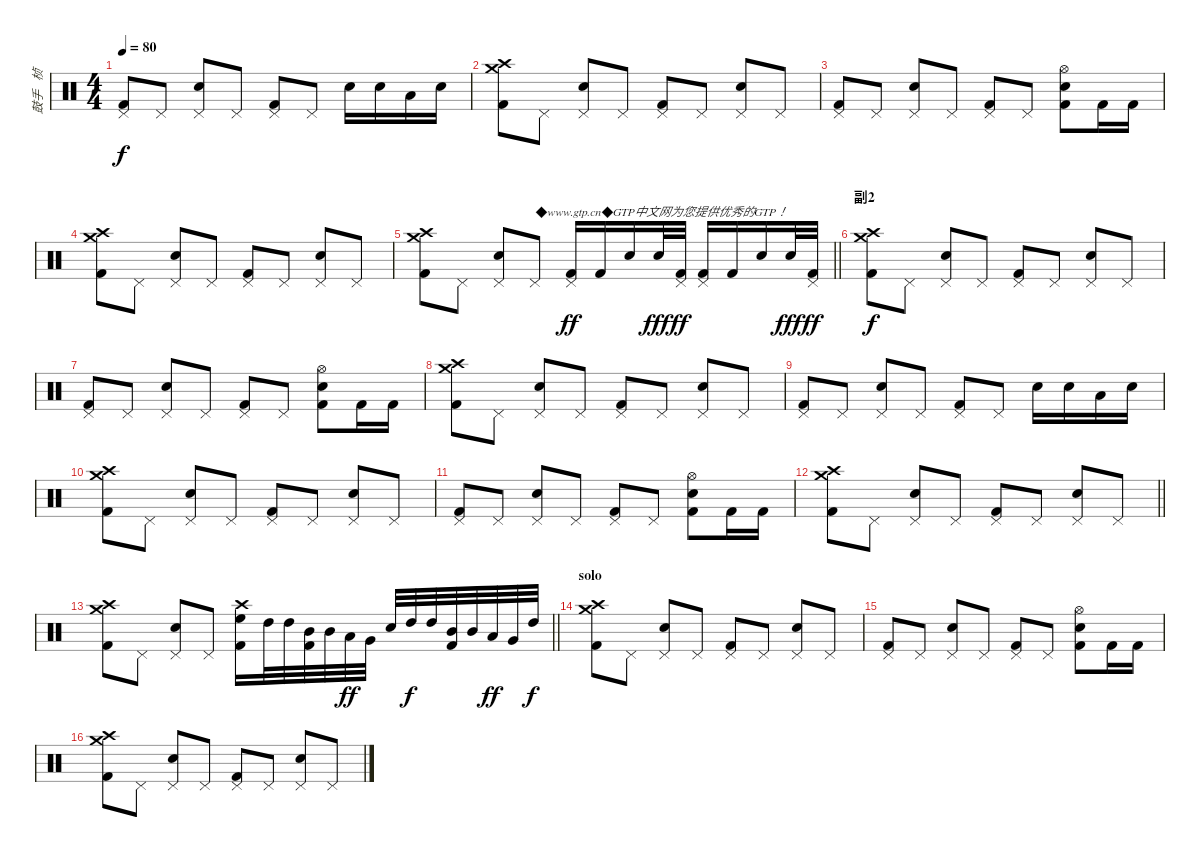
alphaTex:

\track ("鼓手   桢" "鼓手   桢") {instrument percussion}
\staff {score}
\articulation defaults
\ts (4 4)
\tempo 80
\clef neutral
\ks c
("Pedal Hi-Hat (hit)" "Kick (hit) 2").8{dy f} "Pedal Hi-Hat (hit)".8 ("Pedal Hi-Hat (hit)" "Snare (hit) 2").8 "Pedal Hi-Hat (hit)".8 ("Pedal Hi-Hat (hit)" "Kick (hit) 2").8 "Pedal Hi-Hat (hit)".8 "Snare (hit) 2".16 "Snare (hit) 2".16 "Low Tom (hit)".16 "Snare (hit) 2".16 |
("Crash high (hit)" "Crash medium (hit)" "Kick (hit) 2").8 "Pedal Hi-Hat (hit)".8 ("Pedal Hi-Hat (hit)" "Snare (hit) 2").8 "Pedal Hi-Hat (hit)".8 ("Pedal Hi-Hat (hit)" "Kick (hit) 2").8 "Pedal Hi-Hat (hit)".8 ("Pedal Hi-Hat (hit)" "Snare (hit) 2").8 "Pedal Hi-Hat (hit)".8 |
("Pedal Hi-Hat (hit)" "Kick (hit) 2").8 "Pedal Hi-Hat (hit)".8 ("Pedal Hi-Hat (hit)" "Snare (hit) 2").8 "Pedal Hi-Hat (hit)".8 ("Pedal Hi-Hat (hit)" "Kick (hit) 2").8 "Pedal Hi-Hat (hit)".8 ("Hi-Hat (open)" "Snare (hit) 2" "Kick (hit) 2").8 "Kick (hit) 2".16 "Kick (hit) 2".16 |
("Crash high (hit)" "Crash medium (hit)" "Kick (hit) 2").8 "Pedal Hi-Hat (hit)".8 ("Pedal Hi-Hat (hit)" "Snare (hit) 2").8 "Pedal Hi-Hat (hit)".8 ("Pedal Hi-Hat (hit)" "Kick (hit) 2").8 "Pedal Hi-Hat (hit)".8 ("Pedal Hi-Hat (hit)" "Snare (hit) 2").8 "Pedal Hi-Hat (hit)".8 |
\barLineRight lightlight
("Crash high (hit)" "Crash medium (hit)" "Kick (hit) 2").8 "Pedal Hi-Hat (hit)".8 ("Pedal Hi-Hat (hit)" "Snare (hit) 2").8 "Pedal Hi-Hat (hit)".8{txt "◆www.gtp.cn◆GTP中文网为您提供优秀的GTP！"} ("Kick (hit) 2" "Pedal Hi-Hat (hit)").16{dy ff} "Kick (hit) 2".16 "Electric Snare (hit)".16 "Electric Snare (hit)".32{dy fff} ("Kick (hit) 2" "Pedal Hi-Hat (hit)").32{dy ff} ("Kick (hit) 2" "Pedal Hi-Hat (hit)").16 "Kick (hit) 2".16 "Electric Snare (hit)".16 "Electric Snare (hit)".32{dy fff} ("Kick (hit) 2" "Pedal Hi-Hat (hit)").32{dy ff} |
\section ("" "副2")
("Crash high (hit)" "Crash medium (hit)" "Kick (hit) 2").8{dy f} "Pedal Hi-Hat (hit)".8 ("Pedal Hi-Hat (hit)" "Snare (hit) 2").8 "Pedal Hi-Hat (hit)".8 ("Pedal Hi-Hat (hit)" "Kick (hit) 2").8 "Pedal Hi-Hat (hit)".8 ("Pedal Hi-Hat (hit)" "Snare (hit) 2").8 "Pedal Hi-Hat (hit)".8 |
("Pedal Hi-Hat (hit)" "Kick (hit) 2").8 "Pedal Hi-Hat (hit)".8 ("Pedal Hi-Hat (hit)" "Snare (hit) 2").8 "Pedal Hi-Hat (hit)".8 ("Pedal Hi-Hat (hit)" "Kick (hit) 2").8 "Pedal Hi-Hat (hit)".8 ("Hi-Hat (open)" "Snare (hit) 2" "Kick (hit) 2").8 "Kick (hit) 2".16 "Kick (hit) 2".16 |
("Crash high (hit)" "Crash medium (hit)" "Kick (hit) 2").8 "Pedal Hi-Hat (hit)".8 ("Pedal Hi-Hat (hit)" "Snare (hit) 2").8 "Pedal Hi-Hat (hit)".8 ("Pedal Hi-Hat (hit)" "Kick (hit) 2").8 "Pedal Hi-Hat (hit)".8 ("Pedal Hi-Hat (hit)" "Snare (hit) 2").8 "Pedal Hi-Hat (hit)".8 |
("Pedal Hi-Hat (hit)" "Kick (hit) 2").8 "Pedal Hi-Hat (hit)".8 ("Pedal Hi-Hat (hit)" "Snare (hit) 2").8 "Pedal Hi-Hat (hit)".8 ("Pedal Hi-Hat (hit)" "Kick (hit) 2").8 "Pedal Hi-Hat (hit)".8 "Snare (hit) 2".16 "Snare (hit) 2".16 "Low Tom (hit)".16 "Snare (hit) 2".16 |
("Crash high (hit)" "Crash medium (hit)" "Kick (hit) 2").8 "Pedal Hi-Hat (hit)".8 ("Pedal Hi-Hat (hit)" "Snare (hit) 2").8 "Pedal Hi-Hat (hit)".8 ("Pedal Hi-Hat (hit)" "Kick (hit) 2").8 "Pedal Hi-Hat (hit)".8 ("Pedal Hi-Hat (hit)" "Snare (hit) 2").8 "Pedal Hi-Hat (hit)".8 |
("Pedal Hi-Hat (hit)" "Kick (hit) 2").8 "Pedal Hi-Hat (hit)".8 ("Pedal Hi-Hat (hit)" "Snare (hit) 2").8 "Pedal Hi-Hat (hit)".8 ("Pedal Hi-Hat (hit)" "Kick (hit) 2").8 "Pedal Hi-Hat (hit)".8 ("Hi-Hat (open)" "Snare (hit) 2" "Kick (hit) 2").8 "Kick (hit) 2".16 "Kick (hit) 2".16 |
\barLineRight lightlight
("Crash high (hit)" "Crash medium (hit)" "Kick (hit) 2").8 "Pedal Hi-Hat (hit)".8 ("Pedal Hi-Hat (hit)" "Snare (hit) 2").8 "Pedal Hi-Hat (hit)".8 ("Pedal Hi-Hat (hit)" "Kick (hit) 2").8 "Pedal Hi-Hat (hit)".8 ("Pedal Hi-Hat (hit)" "Snare (hit) 2").8 "Pedal Hi-Hat (hit)".8 |
\barLineRight lightlight
("Crash high (hit)" "Crash medium (hit)" "Kick (hit) 2").8 "Pedal Hi-Hat (hit)".8 ("Pedal Hi-Hat (hit)" "Snare (hit) 2").8 "Pedal Hi-Hat (hit)".8 ("Crash high (hit)" "High Floor Tom (hit)" "Kick (hit) 2").16 "High Tom (hit)".32 "High Tom (hit)".32 ("Mid Tom (hit)" "Kick (hit) 2").32 "Mid Tom (hit)".32 "Low Tom (hit)".32{dy ff} "Very Low Tom (hit)".32 "Electric Snare (hit)".32 "High Tom (hit)".32{dy f} "High Tom (hit)".32 ("Mid Tom (hit)" "Kick (hit) 2").32 "Mid Tom (hit)".32 "Low Tom (hit)".32{dy ff} "Very Low Tom (hit)".32 "High Tom (hit)".32{dy f} |
\section ("" "solo")
("Crash high (hit)" "Crash medium (hit)" "Kick (hit) 2").8 "Pedal Hi-Hat (hit)".8 ("Pedal Hi-Hat (hit)" "Snare (hit) 2").8 "Pedal Hi-Hat (hit)".8 ("Pedal Hi-Hat (hit)" "Kick (hit) 2").8 "Pedal Hi-Hat (hit)".8 ("Pedal Hi-Hat (hit)" "Snare (hit) 2").8 "Pedal Hi-Hat (hit)".8 |
("Pedal Hi-Hat (hit)" "Kick (hit) 2").8 "Pedal Hi-Hat (hit)".8 ("Pedal Hi-Hat (hit)" "Snare (hit) 2").8 "Pedal Hi-Hat (hit)".8 ("Pedal Hi-Hat (hit)" "Kick (hit) 2").8 "Pedal Hi-Hat (hit)".8 ("Hi-Hat (open)" "Snare (hit) 2" "Kick (hit) 2").8 "Kick (hit) 2".16 "Kick (hit) 2".16 |
("Crash high (hit)" "Crash medium (hit)" "Kick (hit) 2").8 "Pedal Hi-Hat (hit)".8 ("Pedal Hi-Hat (hit)" "Snare (hit) 2").8 "Pedal Hi-Hat (hit)".8 ("Pedal Hi-Hat (hit)" "Kick (hit) 2").8 "Pedal Hi-Hat (hit)".8 ("Pedal Hi-Hat (hit)" "Snare (hit) 2").8 "Pedal Hi-Hat (hit)".8
